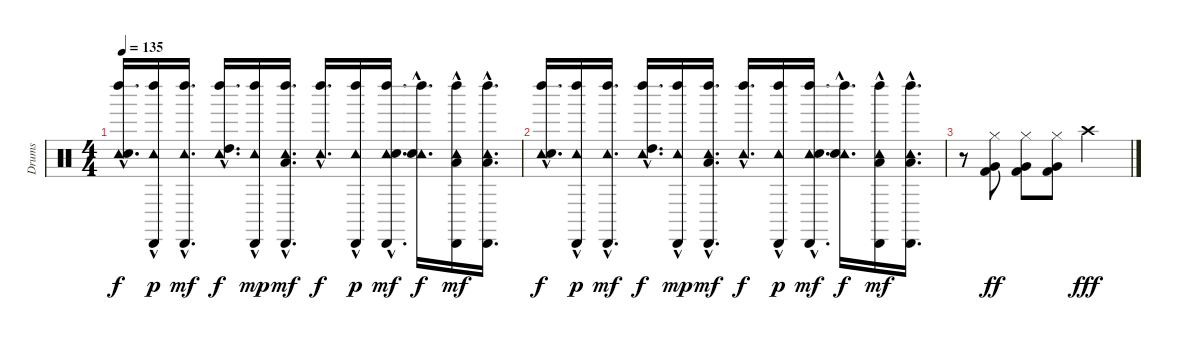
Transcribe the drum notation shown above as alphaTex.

\track ("Drums" "Drums") {instrument percussion}
\staff {score}
\articulation defaults
\ts (4 4)
\tempo 135
\clef neutral
\ks c
("Left Maraca (hit)"{hac} "Tambourine (hit)"{hac} "Snare (hit) 2"{hac}).16{d dy f} ("Left Maraca (hit)"{hac} "Cabasa (hit)"{hac} "Tambourine (hit)"{hac}).16{dy p} ("Left Maraca (hit)"{hac} "Cabasa (hit)"{hac} "Tambourine (hit)"{hac}).16{d dy mf} ("Left Maraca (hit)"{hac} "Tambourine (hit)"{hac} "High Tom (hit)"{hac}).16{d dy f} ("Left Maraca (hit)"{hac} "Cabasa (hit)"{hac} "Tambourine (hit)"{hac}).16{dy mp} ("Left Maraca (hit)"{hac} "Cabasa (hit)"{hac} "Tambourine (hit)"{hac} "Low Tom (hit)"{hac}).16{d dy mf} ("Left Maraca (hit)"{hac} "Tambourine (hit)"{hac}).16{d dy f} ("Left Maraca (hit)"{hac} "Cabasa (hit)"{hac} "Tambourine (hit)"{hac}).16{dy p} ("Left Maraca (hit)"{hac} "Cabasa (hit)"{hac} "Tambourine (hit)"{hac} "Snare (hit) 2"{hac}).16{d dy mf} ("Left Maraca (hit)"{hac} "Tambourine (hit)"{hac} "Snare (hit) 2"{hac}).16{d dy f} ("Left Maraca (hit)"{hac} "Cabasa (hit)"{hac} "Tambourine (hit)"{hac} "Low Floor Tom (hit)"{hac}).16{dy mf} ("Left Maraca (hit)"{hac} "Cabasa (hit)"{hac} "Tambourine (hit)"{hac} "Low Floor Tom (hit)"{hac}).16{d} |
("Left Maraca (hit)"{hac} "Tambourine (hit)"{hac} "Snare (hit) 2"{hac}).16{d dy f} ("Left Maraca (hit)"{hac} "Cabasa (hit)"{hac} "Tambourine (hit)"{hac}).16{dy p} ("Left Maraca (hit)"{hac} "Cabasa (hit)"{hac} "Tambourine (hit)"{hac}).16{d dy mf} ("Left Maraca (hit)"{hac} "Tambourine (hit)"{hac} "High Tom (hit)"{hac}).16{d dy f} ("Left Maraca (hit)"{hac} "Cabasa (hit)"{hac} "Tambourine (hit)"{hac}).16{dy mp} ("Left Maraca (hit)"{hac} "Cabasa (hit)"{hac} "Tambourine (hit)"{hac} "Low Tom (hit)"{hac}).16{d dy mf} ("Left Maraca (hit)"{hac} "Tambourine (hit)"{hac}).16{d dy f} ("Left Maraca (hit)"{hac} "Cabasa (hit)"{hac} "Tambourine (hit)"{hac}).16{dy p} ("Left Maraca (hit)"{hac} "Cabasa (hit)"{hac} "Tambourine (hit)"{hac} "Snare (hit) 2"{hac}).16{d dy mf} ("Left Maraca (hit)"{hac} "Tambourine (hit)"{hac} "Snare (hit) 2"{hac}).16{d dy f} ("Left Maraca (hit)"{hac} "Cabasa (hit)"{hac} "Tambourine (hit)"{hac} "Low Floor Tom (hit)"{hac}).16{dy mf} ("Left Maraca (hit)"{hac} "Cabasa (hit)"{hac} "Tambourine (hit)"{hac} "Low Floor Tom (hit)"{hac}).16{d} |
r.8 ("Very Low Tom (hit)" "Kick (hit) 2" "Hi-Hat (closed)").8{dy ff} ("Very Low Tom (hit)" "Kick (hit) 2" "Hi-Hat (closed)").8 ("Very Low Tom (hit)" "Kick (hit) 2" "Hi-Hat (closed)").8 "Crash high (hit)".2{dy fff}
